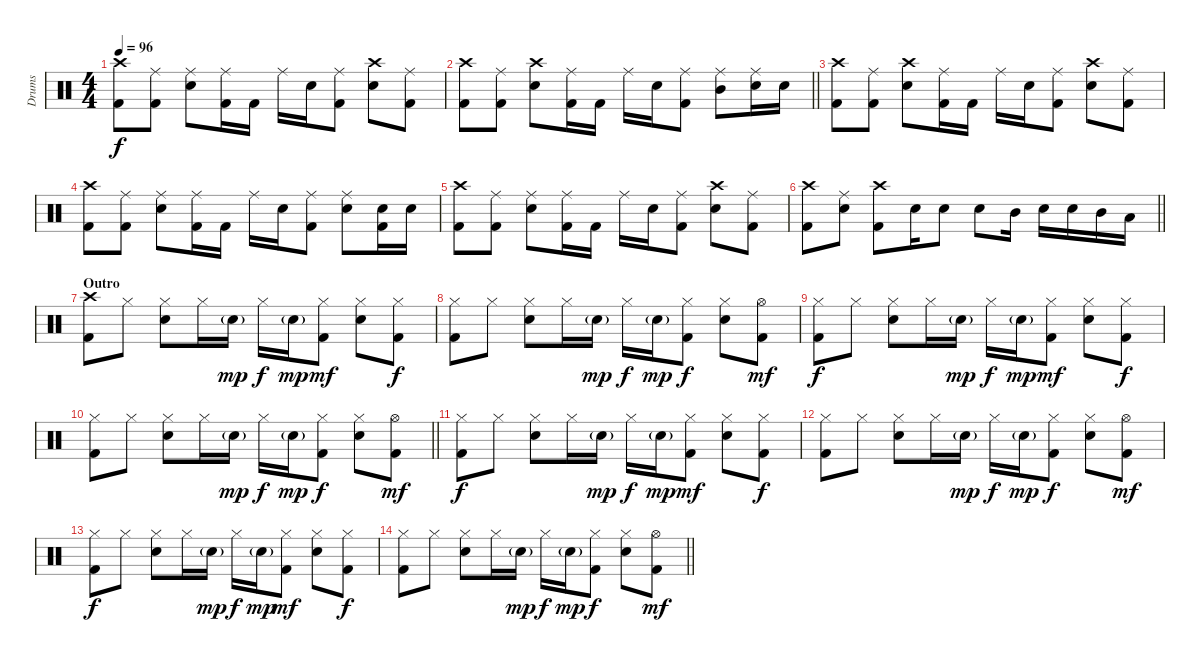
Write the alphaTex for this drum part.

\track ("Drums" "Drums") {instrument percussion}
\staff {score}
\articulation defaults
\ts (4 4)
\tempo 96
\clef neutral
\ks c
("Crash high (hit)" "Kick (hit) 2").8{dy f} ("Ride (middle)" "Kick (hit) 2").8 ("Ride (middle)" "Electric Snare (hit)").8 ("Ride (middle)" "Kick (hit) 2").16 "Kick (hit) 2".16 "Ride (middle)".16 "Electric Snare (hit)".16 ("Ride (middle)" "Kick (hit) 2").8 ("Crash high (hit)" "Electric Snare (hit)").8 ("Ride (middle)" "Kick (hit) 2").8 |
\barLineRight lightlight
("Crash high (hit)" "Kick (hit) 2").8 ("Ride (middle)" "Kick (hit) 2").8 ("Crash high (hit)" "Electric Snare (hit)").8 ("Ride (middle)" "Kick (hit) 2").16 "Kick (hit) 2".16 "Ride (middle)".16 "Electric Snare (hit)".16 ("Ride (middle)" "Kick (hit) 2").8 ("Ride (middle)" "Mid Tom (hit)").8 ("Ride (middle)" "Electric Snare (hit)").16 "Electric Snare (hit)".16 |
("Crash high (hit)" "Kick (hit) 2").8 ("Ride (middle)" "Kick (hit) 2").8 ("Crash high (hit)" "Electric Snare (hit)").8 ("Ride (middle)" "Kick (hit) 2").16 "Kick (hit) 2".16 "Ride (middle)".16 "Electric Snare (hit)".16 ("Ride (middle)" "Kick (hit) 2").8 ("Crash high (hit)" "Electric Snare (hit)").8 ("Ride (middle)" "Kick (hit) 2").8 |
("Crash high (hit)" "Kick (hit) 2").8 ("Ride (middle)" "Kick (hit) 2").8 ("Ride (middle)" "Electric Snare (hit)").8 ("Ride (middle)" "Kick (hit) 2").16 "Kick (hit) 2".16 "Ride (middle)".16 "Electric Snare (hit)".16 ("Ride (middle)" "Kick (hit) 2").8 ("Ride (middle)" "Electric Snare (hit)").8 ("Electric Snare (hit)" "Kick (hit) 2").16 "Electric Snare (hit)".16 |
("Crash high (hit)" "Kick (hit) 2").8 ("Ride (middle)" "Kick (hit) 2").8 ("Ride (middle)" "Electric Snare (hit)").8 ("Ride (middle)" "Kick (hit) 2").16 "Kick (hit) 2".16 "Ride (middle)".16 "Electric Snare (hit)".16 ("Ride (middle)" "Kick (hit) 2").8 ("Crash high (hit)" "Electric Snare (hit)").8 ("Ride (middle)" "Kick (hit) 2").8 |
\barLineRight lightlight
("Crash high (hit)" "Kick (hit) 2").8 ("Ride (middle)" "Electric Snare (hit)").8 ("Crash high (hit)" "Kick (hit) 2").8 "Electric Snare (hit)".16 "Electric Snare (hit)".8 "Electric Snare (hit)".8 "Mid Tom (hit)".16 "Electric Snare (hit)".16 "Electric Snare (hit)".16 "Mid Tom (hit)".16 "Low Tom (hit)".16 |
\section ("" "Outro")
("Crash high (hit)" "Kick (hit) 2").8{volume 6} "Hi-Hat (closed)".8 ("Hi-Hat (closed)" "Electric Snare (hit)").8 "Hi-Hat (closed)".16 "Electric Snare (hit)"{g}.16{dy mp} "Hi-Hat (closed)".16{dy f} "Electric Snare (hit)"{g}.16{dy mp} ("Hi-Hat (closed)" "Kick (hit) 2").8{dy mf} ("Hi-Hat (closed)" "Electric Snare (hit)").8 ("Hi-Hat (closed)" "Kick (hit) 2").8{dy f} |
("Hi-Hat (closed)" "Kick (hit) 2").8 "Hi-Hat (closed)".8 ("Hi-Hat (closed)" "Electric Snare (hit)").8 "Hi-Hat (closed)".16 "Electric Snare (hit)"{g}.16{dy mp} "Hi-Hat (closed)".16{dy f} "Electric Snare (hit)"{g}.16{dy mp} ("Hi-Hat (closed)" "Kick (hit) 2").8{dy f} ("Hi-Hat (closed)" "Electric Snare (hit)").8 ("Hi-Hat (open)" "Kick (hit) 2").8{dy mf} |
("Hi-Hat (closed)" "Kick (hit) 2").8{dy f} "Hi-Hat (closed)".8 ("Hi-Hat (closed)" "Electric Snare (hit)").8 "Hi-Hat (closed)".16 "Electric Snare (hit)"{g}.16{dy mp} "Hi-Hat (closed)".16{dy f} "Electric Snare (hit)"{g}.16{dy mp} ("Hi-Hat (closed)" "Kick (hit) 2").8{dy mf} ("Hi-Hat (closed)" "Electric Snare (hit)").8 ("Hi-Hat (closed)" "Kick (hit) 2").8{dy f} |
\barLineRight lightlight
("Hi-Hat (closed)" "Kick (hit) 2").8 "Hi-Hat (closed)".8 ("Hi-Hat (closed)" "Electric Snare (hit)").8 "Hi-Hat (closed)".16 "Electric Snare (hit)"{g}.16{dy mp} "Hi-Hat (closed)".16{dy f} "Electric Snare (hit)"{g}.16{dy mp} ("Hi-Hat (closed)" "Kick (hit) 2").8{dy f} ("Hi-Hat (closed)" "Electric Snare (hit)").8 ("Hi-Hat (open)" "Kick (hit) 2").8{dy mf} |
("Hi-Hat (closed)" "Kick (hit) 2").8{dy f volume 0} "Hi-Hat (closed)".8 ("Hi-Hat (closed)" "Electric Snare (hit)").8 "Hi-Hat (closed)".16 "Electric Snare (hit)"{g}.16{dy mp} "Hi-Hat (closed)".16{dy f} "Electric Snare (hit)"{g}.16{dy mp} ("Hi-Hat (closed)" "Kick (hit) 2").8{dy mf} ("Hi-Hat (closed)" "Electric Snare (hit)").8 ("Hi-Hat (closed)" "Kick (hit) 2").8{dy f} |
("Hi-Hat (closed)" "Kick (hit) 2").8 "Hi-Hat (closed)".8 ("Hi-Hat (closed)" "Electric Snare (hit)").8 "Hi-Hat (closed)".16 "Electric Snare (hit)"{g}.16{dy mp} "Hi-Hat (closed)".16{dy f} "Electric Snare (hit)"{g}.16{dy mp} ("Hi-Hat (closed)" "Kick (hit) 2").8{dy f} ("Hi-Hat (closed)" "Electric Snare (hit)").8 ("Hi-Hat (open)" "Kick (hit) 2").8{dy mf} |
("Hi-Hat (closed)" "Kick (hit) 2").8{dy f} "Hi-Hat (closed)".8 ("Hi-Hat (closed)" "Electric Snare (hit)").8 "Hi-Hat (closed)".16 "Electric Snare (hit)"{g}.16{dy mp} "Hi-Hat (closed)".16{dy f} "Electric Snare (hit)"{g}.16{dy mp} ("Hi-Hat (closed)" "Kick (hit) 2").8{dy mf} ("Hi-Hat (closed)" "Electric Snare (hit)").8 ("Hi-Hat (closed)" "Kick (hit) 2").8{dy f} |
\barLineRight lightlight
("Hi-Hat (closed)" "Kick (hit) 2").8 "Hi-Hat (closed)".8 ("Hi-Hat (closed)" "Electric Snare (hit)").8 "Hi-Hat (closed)".16 "Electric Snare (hit)"{g}.16{dy mp} "Hi-Hat (closed)".16{dy f} "Electric Snare (hit)"{g}.16{dy mp} ("Hi-Hat (closed)" "Kick (hit) 2").8{dy f} ("Hi-Hat (closed)" "Electric Snare (hit)").8 ("Hi-Hat (open)" "Kick (hit) 2").8{dy mf}
